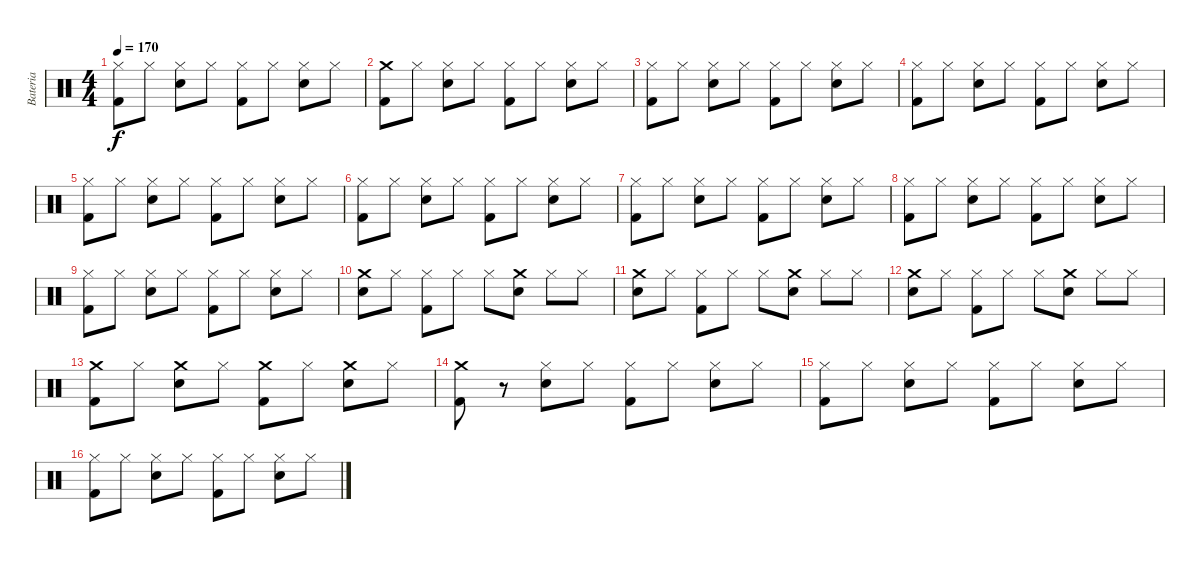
\track ("Bateria" "Bateria") {instrument percussion}
\staff {score}
\articulation defaults
\ts (4 4)
\tempo 170
\clef neutral
\ks c
("Hi-Hat (closed)" "Kick (hit) 2").8{dy f} "Hi-Hat (closed)".8 ("Hi-Hat (closed)" "Snare (hit) 2").8 "Hi-Hat (closed)".8 ("Hi-Hat (closed)" "Kick (hit) 2").8 "Hi-Hat (closed)".8 ("Hi-Hat (closed)" "Snare (hit) 2").8 "Hi-Hat (closed)".8 |
("Crash medium (hit)" "Kick (hit) 2").8 "Hi-Hat (closed)".8 ("Hi-Hat (closed)" "Snare (hit) 2").8 "Hi-Hat (closed)".8 ("Hi-Hat (closed)" "Kick (hit) 2").8 "Hi-Hat (closed)".8 ("Hi-Hat (closed)" "Snare (hit) 2").8 "Hi-Hat (closed)".8 |
("Hi-Hat (closed)" "Kick (hit) 2").8 "Hi-Hat (closed)".8 ("Hi-Hat (closed)" "Snare (hit) 2").8 "Hi-Hat (closed)".8 ("Hi-Hat (closed)" "Kick (hit) 2").8 "Hi-Hat (closed)".8 ("Hi-Hat (closed)" "Snare (hit) 2").8 "Hi-Hat (closed)".8 |
("Hi-Hat (closed)" "Kick (hit) 2").8 "Hi-Hat (closed)".8 ("Hi-Hat (closed)" "Snare (hit) 2").8 "Hi-Hat (closed)".8 ("Hi-Hat (closed)" "Kick (hit) 2").8 "Hi-Hat (closed)".8 ("Hi-Hat (closed)" "Snare (hit) 2").8 "Hi-Hat (closed)".8 |
("Hi-Hat (closed)" "Kick (hit) 2").8 "Hi-Hat (closed)".8 ("Hi-Hat (closed)" "Snare (hit) 2").8 "Hi-Hat (closed)".8 ("Hi-Hat (closed)" "Kick (hit) 2").8 "Hi-Hat (closed)".8 ("Hi-Hat (closed)" "Snare (hit) 2").8 "Hi-Hat (closed)".8 |
("Hi-Hat (closed)" "Kick (hit) 2").8 "Hi-Hat (closed)".8 ("Hi-Hat (closed)" "Snare (hit) 2").8 "Hi-Hat (closed)".8 ("Hi-Hat (closed)" "Kick (hit) 2").8 "Hi-Hat (closed)".8 ("Hi-Hat (closed)" "Snare (hit) 2").8 "Hi-Hat (closed)".8 |
("Hi-Hat (closed)" "Kick (hit) 2").8 "Hi-Hat (closed)".8 ("Hi-Hat (closed)" "Snare (hit) 2").8 "Hi-Hat (closed)".8 ("Hi-Hat (closed)" "Kick (hit) 2").8 "Hi-Hat (closed)".8 ("Hi-Hat (closed)" "Snare (hit) 2").8 "Hi-Hat (closed)".8 |
("Hi-Hat (closed)" "Kick (hit) 2").8 "Hi-Hat (closed)".8 ("Hi-Hat (closed)" "Snare (hit) 2").8 "Hi-Hat (closed)".8 ("Hi-Hat (closed)" "Kick (hit) 2").8 "Hi-Hat (closed)".8 ("Hi-Hat (closed)" "Snare (hit) 2").8 "Hi-Hat (closed)".8 |
("Hi-Hat (closed)" "Kick (hit) 2").8 "Hi-Hat (closed)".8 ("Hi-Hat (closed)" "Snare (hit) 2").8 "Hi-Hat (closed)".8 ("Hi-Hat (closed)" "Kick (hit) 2").8 "Hi-Hat (closed)".8 ("Hi-Hat (closed)" "Snare (hit) 2").8 "Hi-Hat (closed)".8 |
("Crash medium (hit)" "Snare (hit) 2").8 "Hi-Hat (closed)".8 ("Hi-Hat (closed)" "Kick (hit) 2").8 "Hi-Hat (closed)".8 "Hi-Hat (closed)".8 ("Crash medium (hit)" "Snare (hit) 2").8 "Hi-Hat (closed)".8 "Hi-Hat (closed)".8 |
("Crash medium (hit)" "Snare (hit) 2").8 "Hi-Hat (closed)".8 ("Hi-Hat (closed)" "Kick (hit) 2").8 "Hi-Hat (closed)".8 "Hi-Hat (closed)".8 ("Crash medium (hit)" "Snare (hit) 2").8 "Hi-Hat (closed)".8 "Hi-Hat (closed)".8 |
("Crash medium (hit)" "Snare (hit) 2").8 "Hi-Hat (closed)".8 ("Hi-Hat (closed)" "Kick (hit) 2").8 "Hi-Hat (closed)".8 "Hi-Hat (closed)".8 ("Crash medium (hit)" "Snare (hit) 2").8 "Hi-Hat (closed)".8 "Hi-Hat (closed)".8 |
("Crash medium (hit)" "Kick (hit) 2").8 "Hi-Hat (closed)".8 ("Crash medium (hit)" "Snare (hit) 2").8 "Hi-Hat (closed)".8 ("Crash medium (hit)" "Kick (hit) 2").8 "Hi-Hat (closed)".8 ("Crash medium (hit)" "Snare (hit) 2").8 "Hi-Hat (closed)".8 |
("Crash medium (hit)" "Kick (hit) 2").8 r.8 ("Hi-Hat (closed)" "Snare (hit) 2").8 "Hi-Hat (closed)".8 ("Hi-Hat (closed)" "Kick (hit) 2").8 "Hi-Hat (closed)".8 ("Hi-Hat (closed)" "Snare (hit) 2").8 "Hi-Hat (closed)".8 |
("Hi-Hat (closed)" "Kick (hit) 2").8 "Hi-Hat (closed)".8 ("Hi-Hat (closed)" "Snare (hit) 2").8 "Hi-Hat (closed)".8 ("Hi-Hat (closed)" "Kick (hit) 2").8 "Hi-Hat (closed)".8 ("Hi-Hat (closed)" "Snare (hit) 2").8 "Hi-Hat (closed)".8 |
("Hi-Hat (closed)" "Kick (hit) 2").8 "Hi-Hat (closed)".8 ("Hi-Hat (closed)" "Snare (hit) 2").8 "Hi-Hat (closed)".8 ("Hi-Hat (closed)" "Kick (hit) 2").8 "Hi-Hat (closed)".8 ("Hi-Hat (closed)" "Snare (hit) 2").8 "Hi-Hat (closed)".8
